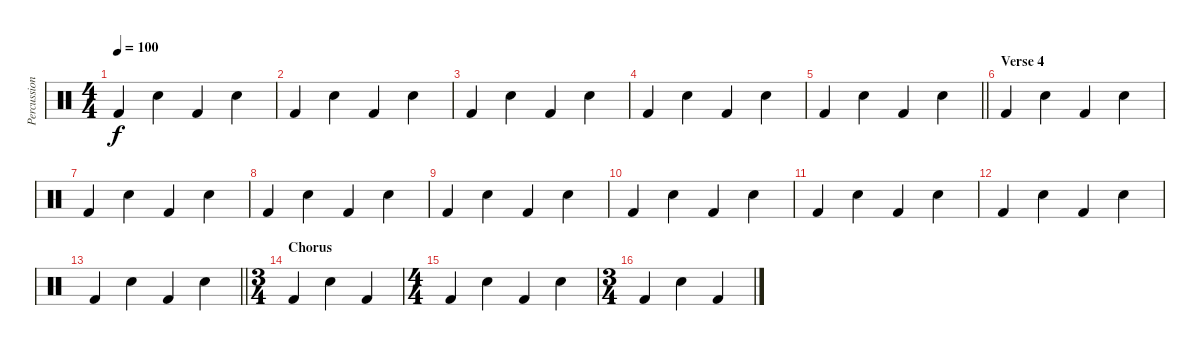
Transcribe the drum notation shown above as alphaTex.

\track ("Percussion" "Percussion") {instrument percussion}
\staff {score}
\articulation defaults
\ts (4 4)
\tempo 100
\clef neutral
\ks c "Kick (hit) 2".4{dy f} "Snare (hit) 2".4 "Kick (hit) 2".4 "Snare (hit) 2".4
|
"Kick (hit) 2".4 "Snare (hit) 2".4 "Kick (hit) 2".4 "Snare (hit) 2".4 |
"Kick (hit) 2".4 "Snare (hit) 2".4 "Kick (hit) 2".4 "Snare (hit) 2".4 |
"Kick (hit) 2".4 "Snare (hit) 2".4 "Kick (hit) 2".4 "Snare (hit) 2".4 |
\barLineRight lightlight "Kick (hit) 2".4 "Snare (hit) 2".4 "Kick (hit) 2".4 "Snare (hit) 2".4
|
\section ("" "Verse 4")
"Kick (hit) 2".4 "Snare (hit) 2".4 "Kick (hit) 2".4 "Snare (hit) 2".4 |
"Kick (hit) 2".4 "Snare (hit) 2".4 "Kick (hit) 2".4 "Snare (hit) 2".4 |
"Kick (hit) 2".4 "Snare (hit) 2".4 "Kick (hit) 2".4 "Snare (hit) 2".4 |
"Kick (hit) 2".4 "Snare (hit) 2".4 "Kick (hit) 2".4 "Snare (hit) 2".4 |
"Kick (hit) 2".4 "Snare (hit) 2".4 "Kick (hit) 2".4 "Snare (hit) 2".4 |
"Kick (hit) 2".4 "Snare (hit) 2".4 "Kick (hit) 2".4 "Snare (hit) 2".4 |
"Kick (hit) 2".4 "Snare (hit) 2".4 "Kick (hit) 2".4 "Snare (hit) 2".4 |
\barLineRight lightlight "Kick (hit) 2".4 "Snare (hit) 2".4 "Kick (hit) 2".4 "Snare (hit) 2".4
|
\ts (3 4)
\section ("" "Chorus")
"Kick (hit) 2".4 "Snare (hit) 2".4 "Kick (hit) 2".4 |
\ts (4 4)
"Kick (hit) 2".4 "Snare (hit) 2".4 "Kick (hit) 2".4 "Snare (hit) 2".4 |
\ts (3 4)
"Kick (hit) 2".4 "Snare (hit) 2".4 "Kick (hit) 2".4
